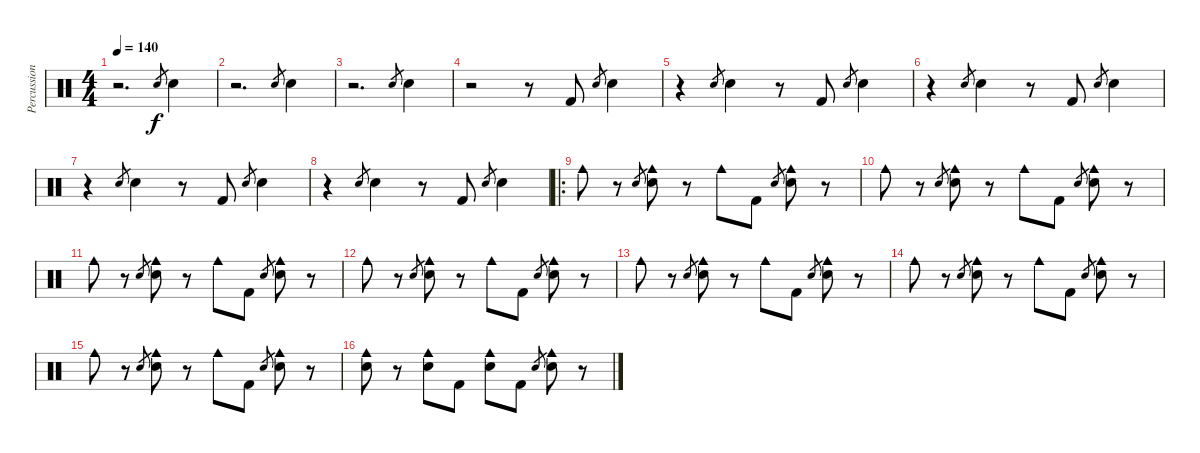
\track ("Percussion" "Percussion") {instrument percussion}
\staff {score}
\articulation defaults
\ts (4 4)
\tempo 140
\clef neutral
\ks c
r.2{d dy f} "Electric Snare (hit)".8{gr} "Electric Snare (hit)".4 |
r.2{d} "Electric Snare (hit)".8{gr} "Electric Snare (hit)".4 |
r.2{d} "Electric Snare (hit)".8{gr} "Electric Snare (hit)".4 |
r.2 r.8 "Kick (hit) 2".8 "Electric Snare (hit)".8{gr} "Electric Snare (hit)".4 |
r.4 "Electric Snare (hit)".8{gr} "Electric Snare (hit)".4 r.8 "Kick (hit) 2".8 "Electric Snare (hit)".8{gr} "Electric Snare (hit)".4 |
r.4 "Electric Snare (hit)".8{gr} "Electric Snare (hit)".4 r.8 "Kick (hit) 2".8 "Electric Snare (hit)".8{gr} "Electric Snare (hit)".4 |
r.4 "Electric Snare (hit)".8{gr} "Electric Snare (hit)".4 r.8 "Kick (hit) 2".8 "Electric Snare (hit)".8{gr} "Electric Snare (hit)".4 |
r.4 "Electric Snare (hit)".8{gr} "Electric Snare (hit)".4 r.8 "Kick (hit) 2".8 "Electric Snare (hit)".8{gr} "Electric Snare (hit)".4 |
\ro "Cowbell medium (hit)".8
r.8 "Electric Snare (hit)".8{gr} ("Cowbell medium (hit)" "Electric Snare (hit)").8 r.8 "Cowbell medium (hit)".8 "Kick (hit) 2".8 "Electric Snare (hit)".8{gr} ("Cowbell medium (hit)" "Electric Snare (hit)").8 r.8 |
"Cowbell medium (hit)".8 r.8 "Electric Snare (hit)".8{gr} ("Cowbell medium (hit)" "Electric Snare (hit)").8 r.8 "Cowbell medium (hit)".8 "Kick (hit) 2".8 "Electric Snare (hit)".8{gr} ("Cowbell medium (hit)" "Electric Snare (hit)").8 r.8 |
"Cowbell medium (hit)".8 r.8 "Electric Snare (hit)".8{gr} ("Cowbell medium (hit)" "Electric Snare (hit)").8 r.8 "Cowbell medium (hit)".8 "Kick (hit) 2".8 "Electric Snare (hit)".8{gr} ("Cowbell medium (hit)" "Electric Snare (hit)").8 r.8 |
"Cowbell medium (hit)".8 r.8 "Electric Snare (hit)".8{gr} ("Cowbell medium (hit)" "Electric Snare (hit)").8 r.8 "Cowbell medium (hit)".8 "Kick (hit) 2".8 "Electric Snare (hit)".8{gr} ("Cowbell medium (hit)" "Electric Snare (hit)").8 r.8 |
"Cowbell medium (hit)".8 r.8 "Electric Snare (hit)".8{gr} ("Cowbell medium (hit)" "Electric Snare (hit)").8 r.8 "Cowbell medium (hit)".8 "Kick (hit) 2".8 "Electric Snare (hit)".8{gr} ("Cowbell medium (hit)" "Electric Snare (hit)").8 r.8 |
"Cowbell medium (hit)".8 r.8 "Electric Snare (hit)".8{gr} ("Cowbell medium (hit)" "Electric Snare (hit)").8 r.8 "Cowbell medium (hit)".8 "Kick (hit) 2".8 "Electric Snare (hit)".8{gr} ("Cowbell medium (hit)" "Electric Snare (hit)").8 r.8 |
"Cowbell medium (hit)".8 r.8 "Electric Snare (hit)".8{gr} ("Cowbell medium (hit)" "Electric Snare (hit)").8 r.8 "Cowbell medium (hit)".8 "Kick (hit) 2".8 "Electric Snare (hit)".8{gr} ("Cowbell medium (hit)" "Electric Snare (hit)").8 r.8 |
("Cowbell medium (hit)" "Electric Snare (hit)").8 r.8 ("Cowbell medium (hit)" "Electric Snare (hit)").8 "Kick (hit) 2".8 ("Cowbell medium (hit)" "Electric Snare (hit)").8 "Kick (hit) 2".8 "Electric Snare (hit)".8{gr} ("Cowbell medium (hit)" "Electric Snare (hit)").8 r.8
